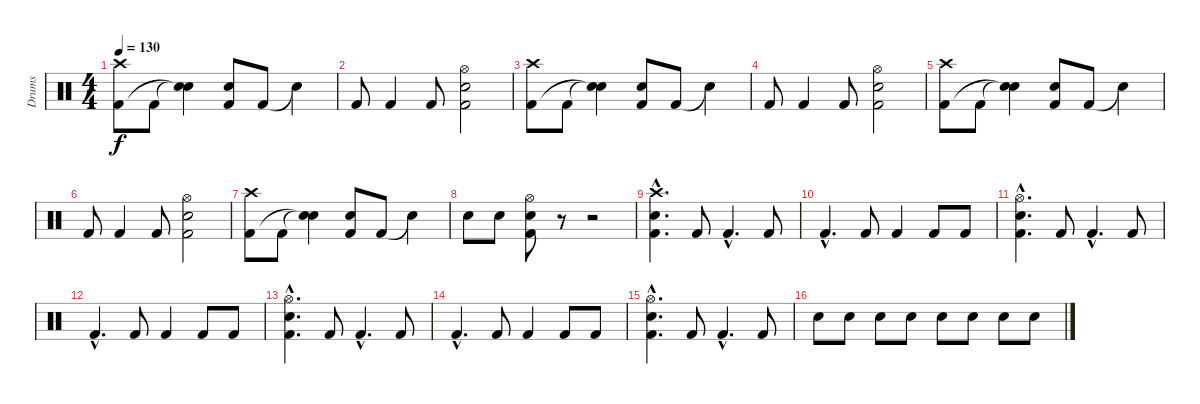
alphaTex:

\track ("Drums" "Drums") {instrument percussion}
\staff {score}
\articulation defaults
\ts (4 4)
\tempo 130
\clef neutral
\ks c
("Crash high (hit)" "Kick (hit) 2").8{dy f} "Kick (hit) 2".8 ("Snare (hit)"{t} "Snare (hit)"{t}).4 ("Electric Snare (hit)" "Kick (hit) 2").8 "Kick (hit) 2".8 "Snare (hit)"{t}.4 |
"Kick (hit) 2".8 "Kick (hit) 2".4 "Kick (hit) 2".8 ("Hi-Hat (open)" "Electric Snare (hit)" "Kick (hit) 2").2 |
("Crash high (hit)" "Kick (hit) 2").8 "Kick (hit) 2".8 ("Snare (hit)"{t} "Snare (hit)"{t}).4 ("Electric Snare (hit)" "Kick (hit) 2").8 "Kick (hit) 2".8 "Snare (hit)"{t}.4 |
"Kick (hit) 2".8 "Kick (hit) 2".4 "Kick (hit) 2".8 ("Hi-Hat (open)" "Electric Snare (hit)" "Kick (hit) 2").2 |
("Crash high (hit)" "Kick (hit) 2").8 "Kick (hit) 2".8 ("Snare (hit)"{t} "Snare (hit)"{t}).4 ("Electric Snare (hit)" "Kick (hit) 2").8 "Kick (hit) 2".8 "Snare (hit)"{t}.4 |
"Kick (hit) 2".8 "Kick (hit) 2".4 "Kick (hit) 2".8 ("Hi-Hat (open)" "Electric Snare (hit)" "Kick (hit) 2").2 |
("Crash high (hit)" "Kick (hit) 2").8 "Kick (hit) 2".8 ("Snare (hit)"{t} "Snare (hit)"{t}).4 ("Electric Snare (hit)" "Kick (hit) 2").8 "Kick (hit) 2".8 "Snare (hit)"{t}.4 |
"Electric Snare (hit)".8 "Electric Snare (hit)".8 ("Hi-Hat (open)" "Electric Snare (hit)" "Kick (hit) 2").8 r.8 r.2 |
("Crash high (hit)"{hac} "Electric Snare (hit)"{hac} "Kick (hit) 2"{hac}).4{d} "Kick (hit) 2".8 "Kick (hit) 2"{hac}.4{d} "Kick (hit) 2".8 |
"Kick (hit) 2"{hac}.4{d} "Kick (hit) 2".8 "Kick (hit) 2".4 "Kick (hit) 2".8 "Kick (hit) 2".8 |
("Hi-Hat (open)"{hac} "Electric Snare (hit)"{hac} "Kick (hit) 2"{hac}).4{d} "Kick (hit) 2".8 "Kick (hit) 2"{hac}.4{d} "Kick (hit) 2".8 |
"Kick (hit) 2"{hac}.4{d} "Kick (hit) 2".8 "Kick (hit) 2".4 "Kick (hit) 2".8 "Kick (hit) 2".8 |
("Hi-Hat (open)"{hac} "Electric Snare (hit)"{hac} "Kick (hit) 2"{hac}).4{d} "Kick (hit) 2".8 "Kick (hit) 2"{hac}.4{d} "Kick (hit) 2".8 |
"Kick (hit) 2"{hac}.4{d} "Kick (hit) 2".8 "Kick (hit) 2".4 "Kick (hit) 2".8 "Kick (hit) 2".8 |
("Hi-Hat (open)"{hac} "Electric Snare (hit)"{hac} "Kick (hit) 2"{hac}).4{d} "Kick (hit) 2".8 "Kick (hit) 2"{hac}.4{d} "Kick (hit) 2".8 |
"Snare (hit) 2".8{volume 10} "Snare (hit) 2".8{volume 16} "Snare (hit) 2".8 "Snare (hit) 2".8 "Snare (hit) 2".8 "Snare (hit) 2".8 "Snare (hit) 2".8 "Snare (hit) 2".8
